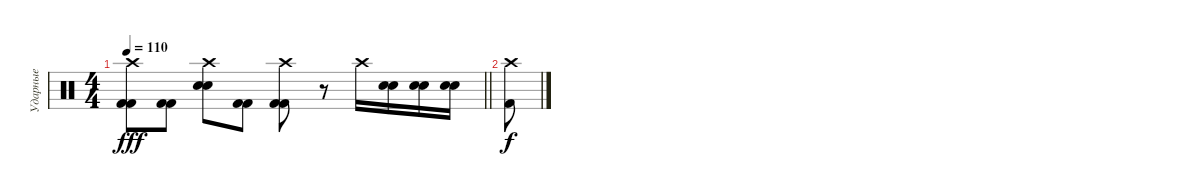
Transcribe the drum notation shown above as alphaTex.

\track ("Ударные" "Ударные") {instrument percussion}
\staff {score}
\articulation defaults
\ts (4 4)
\tempo 110
\clef neutral
\barLineRight lightlight
\ks c
("Kick (hit) 2" "Kick (hit) 2" "Crash high (hit)").8{dy fff} ("Kick (hit) 2" "Kick (hit) 2").8 ("Electric Snare (hit)" "Electric Snare (hit)" "Crash high (hit)").8 ("Kick (hit) 2" "Kick (hit) 2").8 ("Kick (hit) 2" "Kick (hit) 2" "Crash high (hit)").8 r.8 "Crash high (hit)".16 ("Snare (hit) 2" "Electric Snare (hit)").16 ("Snare (hit) 2" "Electric Snare (hit)").16 ("Snare (hit) 2" "Electric Snare (hit)").16 |
("Crash high (hit)" "Kick (hit) 2").8{dy f}
